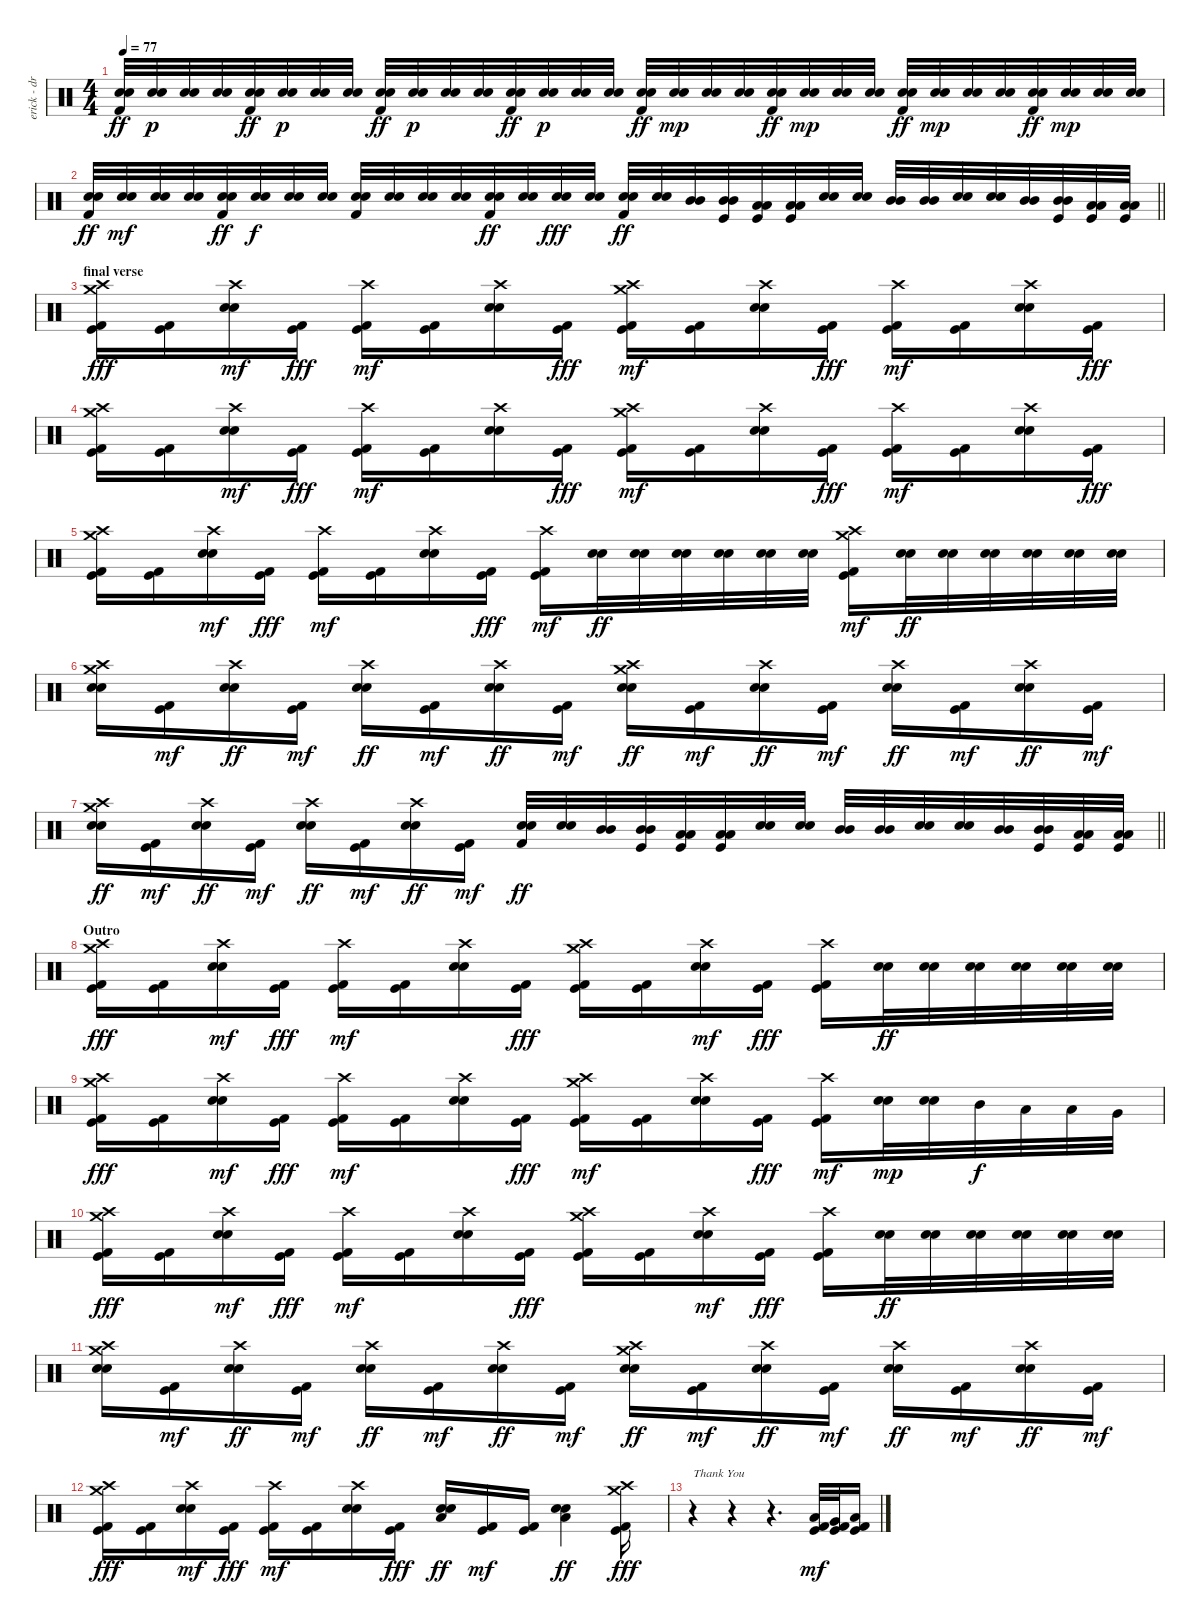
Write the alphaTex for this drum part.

\track ("erick - drum" "erick - dr") {instrument percussion}
\staff {score}
\articulation defaults
\ts (4 4)
\tempo 77
\clef neutral
\ks c
("Snare (hit) 2" "Electric Snare (hit)" "Kick (hit) 2").32{dy ff} ("Snare (hit) 2" "Electric Snare (hit)").32{dy p} ("Snare (hit) 2" "Electric Snare (hit)").32 ("Snare (hit) 2" "Electric Snare (hit)").32 ("Snare (hit) 2" "Electric Snare (hit)" "Kick (hit) 2").32{dy ff} ("Snare (hit) 2" "Electric Snare (hit)").32{dy p} ("Snare (hit) 2" "Electric Snare (hit)").32 ("Snare (hit) 2" "Electric Snare (hit)").32 ("Snare (hit) 2" "Electric Snare (hit)" "Kick (hit) 2").32{dy ff} ("Snare (hit) 2" "Electric Snare (hit)").32{dy p} ("Snare (hit) 2" "Electric Snare (hit)").32 ("Snare (hit) 2" "Electric Snare (hit)").32 ("Snare (hit) 2" "Electric Snare (hit)" "Kick (hit) 2").32{dy ff} ("Snare (hit) 2" "Electric Snare (hit)").32{dy p} ("Snare (hit) 2" "Electric Snare (hit)").32 ("Snare (hit) 2" "Electric Snare (hit)").32 ("Snare (hit) 2" "Electric Snare (hit)" "Kick (hit) 2").32{dy ff} ("Snare (hit) 2" "Electric Snare (hit)").32{dy mp} ("Snare (hit) 2" "Electric Snare (hit)").32 ("Snare (hit) 2" "Electric Snare (hit)").32 ("Snare (hit) 2" "Electric Snare (hit)" "Kick (hit) 2").32{dy ff} ("Snare (hit) 2" "Electric Snare (hit)").32{dy mp} ("Snare (hit) 2" "Electric Snare (hit)").32 ("Snare (hit) 2" "Electric Snare (hit)").32 ("Snare (hit) 2" "Electric Snare (hit)" "Kick (hit) 2").32{dy ff} ("Snare (hit) 2" "Electric Snare (hit)").32{dy mp} ("Snare (hit) 2" "Electric Snare (hit)").32 ("Snare (hit) 2" "Electric Snare (hit)").32 ("Snare (hit) 2" "Electric Snare (hit)" "Kick (hit) 2").32{dy ff} ("Snare (hit) 2" "Electric Snare (hit)").32{dy mp} ("Snare (hit) 2" "Electric Snare (hit)").32 ("Snare (hit) 2" "Electric Snare (hit)").32 |
\barLineRight lightlight
("Snare (hit) 2" "Electric Snare (hit)" "Kick (hit) 2").32{dy ff} ("Snare (hit) 2" "Electric Snare (hit)").32{dy mf} ("Snare (hit) 2" "Electric Snare (hit)").32 ("Snare (hit) 2" "Electric Snare (hit)").32 ("Snare (hit) 2" "Electric Snare (hit)" "Kick (hit) 2").32{dy ff} ("Snare (hit) 2" "Electric Snare (hit)").32{dy f} ("Snare (hit) 2" "Electric Snare (hit)").32 ("Snare (hit) 2" "Electric Snare (hit)").32 ("Snare (hit) 2" "Electric Snare (hit)" "Kick (hit) 2").32 ("Snare (hit) 2" "Electric Snare (hit)").32 ("Snare (hit) 2" "Electric Snare (hit)").32 ("Snare (hit) 2" "Electric Snare (hit)").32 ("Snare (hit) 2" "Electric Snare (hit)" "Kick (hit) 2").32{dy ff} ("Snare (hit) 2" "Electric Snare (hit)").32 ("Snare (hit) 2" "Electric Snare (hit)").32{dy fff} ("Snare (hit) 2" "Electric Snare (hit)").32 ("Snare (hit) 2" "Electric Snare (hit)" "Kick (hit) 2").32{dy ff} ("Snare (hit) 2" "Electric Snare (hit)").32 ("Mid Tom (hit)" "Mid Tom (hit)").32 ("Kick (hit)" "Mid Tom (hit)" "Mid Tom (hit)").32 ("Kick (hit)" "Low Tom (hit)" "Low Tom (hit)").32 ("Kick (hit)" "Low Tom (hit)" "Low Tom (hit)").32 ("Snare (hit) 2" "Electric Snare (hit)").32 ("Snare (hit) 2" "Electric Snare (hit)").32 ("Mid Tom (hit)" "Mid Tom (hit)").32 ("Mid Tom (hit)" "Mid Tom (hit)").32 ("Snare (hit) 2" "Electric Snare (hit)").32 ("Snare (hit) 2" "Electric Snare (hit)").32 ("Mid Tom (hit)" "Mid Tom (hit)").32 ("Kick (hit)" "Mid Tom (hit)" "Mid Tom (hit)").32 ("Kick (hit)" "Low Tom (hit)" "Low Tom (hit)").32 ("Kick (hit)" "Low Tom (hit)" "Low Tom (hit)").32 |
\section ("" "final verse")
("Crash high (hit)" "Crash medium (hit)" "Kick (hit) 2" "Kick (hit)").16{dy fff} ("Kick (hit) 2" "Kick (hit)").16 ("Crash high (hit)" "Snare (hit) 2" "Electric Snare (hit)").16{dy mf} ("Kick (hit) 2" "Kick (hit)").16{dy fff} ("Crash high (hit)" "Kick (hit) 2" "Kick (hit)").16{dy mf} ("Kick (hit) 2" "Kick (hit)").16 ("Crash high (hit)" "Snare (hit) 2" "Electric Snare (hit)").16 ("Kick (hit) 2" "Kick (hit)").16{dy fff} ("Crash high (hit)" "Crash medium (hit)" "Kick (hit) 2" "Kick (hit)").16{dy mf} ("Kick (hit) 2" "Kick (hit)").16 ("Crash high (hit)" "Snare (hit) 2" "Electric Snare (hit)").16 ("Kick (hit) 2" "Kick (hit)").16{dy fff} ("Crash high (hit)" "Kick (hit) 2" "Kick (hit)").16{dy mf} ("Kick (hit) 2" "Kick (hit)").16 ("Crash high (hit)" "Snare (hit) 2" "Electric Snare (hit)").16 ("Kick (hit) 2" "Kick (hit)").16{dy fff} |
("Crash high (hit)" "Crash medium (hit)" "Kick (hit) 2" "Kick (hit)").16 ("Kick (hit) 2" "Kick (hit)").16 ("Crash high (hit)" "Snare (hit) 2" "Electric Snare (hit)").16{dy mf} ("Kick (hit) 2" "Kick (hit)").16{dy fff} ("Crash high (hit)" "Kick (hit) 2" "Kick (hit)").16{dy mf} ("Kick (hit) 2" "Kick (hit)").16 ("Crash high (hit)" "Snare (hit) 2" "Electric Snare (hit)").16 ("Kick (hit) 2" "Kick (hit)").16{dy fff} ("Crash high (hit)" "Crash medium (hit)" "Kick (hit) 2" "Kick (hit)").16{dy mf} ("Kick (hit) 2" "Kick (hit)").16 ("Crash high (hit)" "Snare (hit) 2" "Electric Snare (hit)").16 ("Kick (hit) 2" "Kick (hit)").16{dy fff} ("Crash high (hit)" "Kick (hit) 2" "Kick (hit)").16{dy mf} ("Kick (hit) 2" "Kick (hit)").16 ("Crash high (hit)" "Snare (hit) 2" "Electric Snare (hit)").16 ("Kick (hit) 2" "Kick (hit)").16{dy fff} |
("Crash high (hit)" "Crash medium (hit)" "Kick (hit) 2" "Kick (hit)").16 ("Kick (hit) 2" "Kick (hit)").16 ("Crash high (hit)" "Snare (hit) 2" "Electric Snare (hit)").16{dy mf} ("Kick (hit) 2" "Kick (hit)").16{dy fff} ("Crash high (hit)" "Kick (hit) 2" "Kick (hit)").16{dy mf} ("Kick (hit) 2" "Kick (hit)").16 ("Crash high (hit)" "Snare (hit) 2" "Electric Snare (hit)").16 ("Kick (hit) 2" "Kick (hit)").16{dy fff} ("Crash high (hit)" "Kick (hit) 2" "Kick (hit)").16{dy mf} ("Snare (hit) 2" "Electric Snare (hit)").32{dy ff} ("Snare (hit) 2" "Electric Snare (hit)").32 ("Snare (hit) 2" "Electric Snare (hit)").32 ("Snare (hit) 2" "Electric Snare (hit)").32 ("Snare (hit) 2" "Electric Snare (hit)").32 ("Snare (hit) 2" "Electric Snare (hit)").32 ("Crash medium (hit)" "Crash high (hit)" "Kick (hit)" "Kick (hit) 2").16{dy mf} ("Snare (hit) 2" "Electric Snare (hit)").32{dy ff} ("Snare (hit) 2" "Electric Snare (hit)").32 ("Snare (hit) 2" "Electric Snare (hit)").32 ("Snare (hit) 2" "Electric Snare (hit)").32 ("Snare (hit) 2" "Electric Snare (hit)").32 ("Snare (hit) 2" "Electric Snare (hit)").32 |
("Crash high (hit)" "Crash medium (hit)" "Snare (hit) 2" "Electric Snare (hit)").16 ("Kick (hit)" "Kick (hit) 2").16{dy mf} ("Crash high (hit)" "Snare (hit) 2" "Electric Snare (hit)").16{dy ff} ("Kick (hit)" "Kick (hit) 2").16{dy mf} ("Crash high (hit)" "Snare (hit) 2" "Electric Snare (hit)").16{dy ff} ("Kick (hit)" "Kick (hit) 2").16{dy mf} ("Crash high (hit)" "Snare (hit) 2" "Electric Snare (hit)").16{dy ff} ("Kick (hit)" "Kick (hit) 2").16{dy mf} ("Crash high (hit)" "Crash medium (hit)" "Snare (hit) 2" "Electric Snare (hit)").16{dy ff} ("Kick (hit)" "Kick (hit) 2").16{dy mf} ("Crash high (hit)" "Snare (hit) 2" "Electric Snare (hit)").16{dy ff} ("Kick (hit)" "Kick (hit) 2").16{dy mf} ("Crash high (hit)" "Snare (hit) 2" "Electric Snare (hit)").16{dy ff} ("Kick (hit)" "Kick (hit) 2").16{dy mf} ("Crash high (hit)" "Snare (hit) 2" "Electric Snare (hit)").16{dy ff} ("Kick (hit)" "Kick (hit) 2").16{dy mf} |
\barLineRight lightlight
("Crash high (hit)" "Crash medium (hit)" "Snare (hit) 2" "Electric Snare (hit)").16{dy ff} ("Kick (hit)" "Kick (hit) 2").16{dy mf} ("Crash high (hit)" "Snare (hit) 2" "Electric Snare (hit)").16{dy ff} ("Kick (hit)" "Kick (hit) 2").16{dy mf} ("Crash high (hit)" "Snare (hit) 2" "Electric Snare (hit)").16{dy ff} ("Kick (hit)" "Kick (hit) 2").16{dy mf} ("Crash high (hit)" "Snare (hit) 2" "Electric Snare (hit)").16{dy ff} ("Kick (hit)" "Kick (hit) 2").16{dy mf} ("Snare (hit) 2" "Electric Snare (hit)" "Kick (hit) 2").32{dy ff} ("Snare (hit) 2" "Electric Snare (hit)").32 ("Mid Tom (hit)" "Mid Tom (hit)").32 ("Kick (hit)" "Mid Tom (hit)" "Mid Tom (hit)").32 ("Kick (hit)" "Low Tom (hit)" "Low Tom (hit)").32 ("Kick (hit)" "Low Tom (hit)" "Low Tom (hit)").32 ("Snare (hit) 2" "Electric Snare (hit)").32 ("Snare (hit) 2" "Electric Snare (hit)").32 ("Mid Tom (hit)" "Mid Tom (hit)").32 ("Mid Tom (hit)" "Mid Tom (hit)").32 ("Snare (hit) 2" "Electric Snare (hit)").32 ("Snare (hit) 2" "Electric Snare (hit)").32 ("Mid Tom (hit)" "Mid Tom (hit)").32 ("Kick (hit)" "Mid Tom (hit)" "Mid Tom (hit)").32 ("Kick (hit)" "Low Tom (hit)" "Low Tom (hit)").32 ("Kick (hit)" "Low Tom (hit)" "Low Tom (hit)").32 |
\section ("" "Outro")
("Crash high (hit)" "Crash medium (hit)" "Kick (hit) 2" "Kick (hit)").16{dy fff} ("Kick (hit) 2" "Kick (hit)").16 ("Crash high (hit)" "Snare (hit) 2" "Electric Snare (hit)").16{dy mf} ("Kick (hit) 2" "Kick (hit)").16{dy fff} ("Crash high (hit)" "Kick (hit) 2" "Kick (hit)").16{dy mf} ("Kick (hit) 2" "Kick (hit)").16 ("Crash high (hit)" "Snare (hit) 2" "Electric Snare (hit)").16 ("Kick (hit) 2" "Kick (hit)").16{dy fff} ("Crash high (hit)" "Crash medium (hit)" "Kick (hit) 2" "Kick (hit)").16 ("Kick (hit) 2" "Kick (hit)").16 ("Crash high (hit)" "Snare (hit) 2" "Electric Snare (hit)").16{dy mf} ("Kick (hit) 2" "Kick (hit)").16{dy fff} ("Crash high (hit)" "Kick (hit) 2" "Kick (hit)").16 ("Snare (hit) 2" "Electric Snare (hit)").32{dy ff} ("Snare (hit) 2" "Electric Snare (hit)").32 ("Snare (hit) 2" "Electric Snare (hit)").32 ("Snare (hit) 2" "Electric Snare (hit)").32 ("Snare (hit) 2" "Electric Snare (hit)").32 ("Snare (hit) 2" "Electric Snare (hit)").32 |
("Crash high (hit)" "Crash medium (hit)" "Kick (hit) 2" "Kick (hit)").16{dy fff} ("Kick (hit) 2" "Kick (hit)").16 ("Crash high (hit)" "Snare (hit) 2" "Electric Snare (hit)").16{dy mf} ("Kick (hit) 2" "Kick (hit)").16{dy fff} ("Crash high (hit)" "Kick (hit) 2" "Kick (hit)").16{dy mf} ("Kick (hit) 2" "Kick (hit)").16 ("Crash high (hit)" "Snare (hit) 2" "Electric Snare (hit)").16 ("Kick (hit) 2" "Kick (hit)").16{dy fff} ("Crash high (hit)" "Crash medium (hit)" "Kick (hit) 2" "Kick (hit)").16{dy mf} ("Kick (hit) 2" "Kick (hit)").16 ("Crash high (hit)" "Snare (hit) 2" "Electric Snare (hit)").16 ("Kick (hit) 2" "Kick (hit)").16{dy fff} ("Crash high (hit)" "Kick (hit) 2" "Kick (hit)").16{dy mf} ("Snare (hit) 2" "Electric Snare (hit)").32{dy mp} ("Snare (hit) 2" "Electric Snare (hit)").32 "Mid Tom (hit)".32{dy f} "Low Tom (hit)".32 "Low Tom (hit)".32 "Very Low Tom (hit)".32 |
("Crash high (hit)" "Crash medium (hit)" "Kick (hit) 2" "Kick (hit)").16{dy fff} ("Kick (hit) 2" "Kick (hit)").16 ("Crash high (hit)" "Snare (hit) 2" "Electric Snare (hit)").16{dy mf} ("Kick (hit) 2" "Kick (hit)").16{dy fff} ("Crash high (hit)" "Kick (hit) 2" "Kick (hit)").16{dy mf} ("Kick (hit) 2" "Kick (hit)").16 ("Crash high (hit)" "Snare (hit) 2" "Electric Snare (hit)").16 ("Kick (hit) 2" "Kick (hit)").16{dy fff} ("Crash high (hit)" "Crash medium (hit)" "Kick (hit) 2" "Kick (hit)").16 ("Kick (hit) 2" "Kick (hit)").16 ("Crash high (hit)" "Snare (hit) 2" "Electric Snare (hit)").16{dy mf} ("Kick (hit) 2" "Kick (hit)").16{dy fff} ("Crash high (hit)" "Kick (hit) 2" "Kick (hit)").16 ("Snare (hit) 2" "Electric Snare (hit)").32{dy ff} ("Snare (hit) 2" "Electric Snare (hit)").32 ("Snare (hit) 2" "Electric Snare (hit)").32 ("Snare (hit) 2" "Electric Snare (hit)").32 ("Snare (hit) 2" "Electric Snare (hit)").32 ("Snare (hit) 2" "Electric Snare (hit)").32 |
("Crash high (hit)" "Crash medium (hit)" "Snare (hit) 2" "Electric Snare (hit)").16 ("Kick (hit)" "Kick (hit) 2").16{dy mf} ("Crash high (hit)" "Snare (hit) 2" "Electric Snare (hit)").16{dy ff} ("Kick (hit)" "Kick (hit) 2").16{dy mf} ("Crash high (hit)" "Snare (hit) 2" "Electric Snare (hit)").16{dy ff} ("Kick (hit)" "Kick (hit) 2").16{dy mf} ("Crash high (hit)" "Snare (hit) 2" "Electric Snare (hit)").16{dy ff} ("Kick (hit)" "Kick (hit) 2").16{dy mf} ("Crash high (hit)" "Crash medium (hit)" "Snare (hit) 2" "Electric Snare (hit)").16{dy ff} ("Kick (hit)" "Kick (hit) 2").16{dy mf} ("Crash high (hit)" "Snare (hit) 2" "Electric Snare (hit)").16{dy ff} ("Kick (hit)" "Kick (hit) 2").16{dy mf} ("Crash high (hit)" "Snare (hit) 2" "Electric Snare (hit)").16{dy ff} ("Kick (hit)" "Kick (hit) 2").16{dy mf} ("Crash high (hit)" "Snare (hit) 2" "Electric Snare (hit)").16{dy ff} ("Kick (hit)" "Kick (hit) 2").16{dy mf} |
("Crash high (hit)" "Crash medium (hit)" "Kick (hit) 2" "Kick (hit)").16{dy fff} ("Kick (hit) 2" "Kick (hit)").16 ("Crash high (hit)" "Snare (hit) 2" "Electric Snare (hit)").16{dy mf} ("Kick (hit) 2" "Kick (hit)").16{dy fff} ("Crash high (hit)" "Kick (hit) 2" "Kick (hit)").16{dy mf} ("Kick (hit) 2" "Kick (hit)").16 ("Crash high (hit)" "Snare (hit) 2" "Electric Snare (hit)").16 ("Kick (hit) 2" "Kick (hit)").16{dy fff} ("Snare (hit) 2" "Low Floor Tom (hit)" "Electric Snare (hit)").16{dy ff} ("Kick (hit)" "Kick (hit) 2").16{dy mf} ("Kick (hit)" "Kick (hit) 2").16 ("Snare (hit) 2" "Low Floor Tom (hit)" "Electric Snare (hit)").4{dy ff} ("Crash medium (hit)" "Crash high (hit)" "Kick (hit) 2" "Kick (hit)").16{dy fff} |
r.4{txt "Thank You"} r.4 r.4{d} ("Kick (hit)" "Low Tom (hit)" "Kick (hit) 2").32{dy mf} ("Kick (hit)" "Very Low Tom (hit)" "Kick (hit) 2").32 ("Kick (hit)" "Low Floor Tom (hit)" "Kick (hit) 2").16
